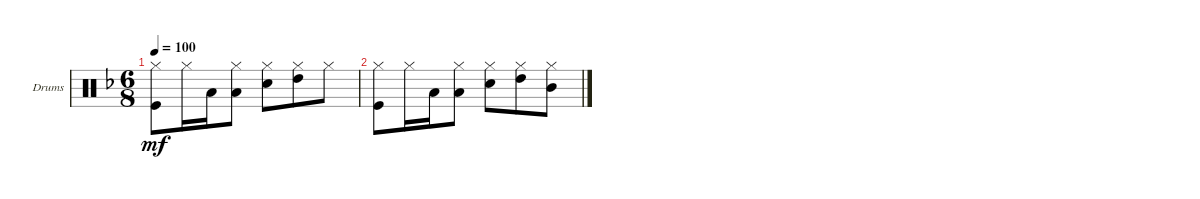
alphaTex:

\defaultSystemsLayout 4
\bracketExtendMode groupsimilarinstruments
\firstSystemTrackNameOrientation horizontal
\otherSystemsTrackNameOrientation horizontal
\track ("Drumkit" "Drums") {instrument percussion}
\staff {score}
\articulation defaults
\ts (6 8)
\tempo 100
\clef neutral
\ks dminor
("Kick (hit)" "Hi-Hat (closed)").8{dy mf} "Hi-Hat (closed)".16 "Low Tom (hit)".16 ("Hi-Hat (closed)" "Low Tom (hit)").8 ("Hi-Hat (closed)" "Snare (hit) 2").8 ("Hi-Hat (closed)" "High Tom (hit)").8 "Hi-Hat (closed)".8 |
("Kick (hit)" "Hi-Hat (closed)").8 "Hi-Hat (closed)".16 "Low Tom (hit)".16 ("Hi-Hat (closed)" "Low Tom (hit)").8 ("Hi-Hat (closed)" "Snare (hit) 2").8 ("Hi-Hat (closed)" "High Tom (hit)").8 ("Hi-Hat (closed)" "Mid Tom (hit)").8
